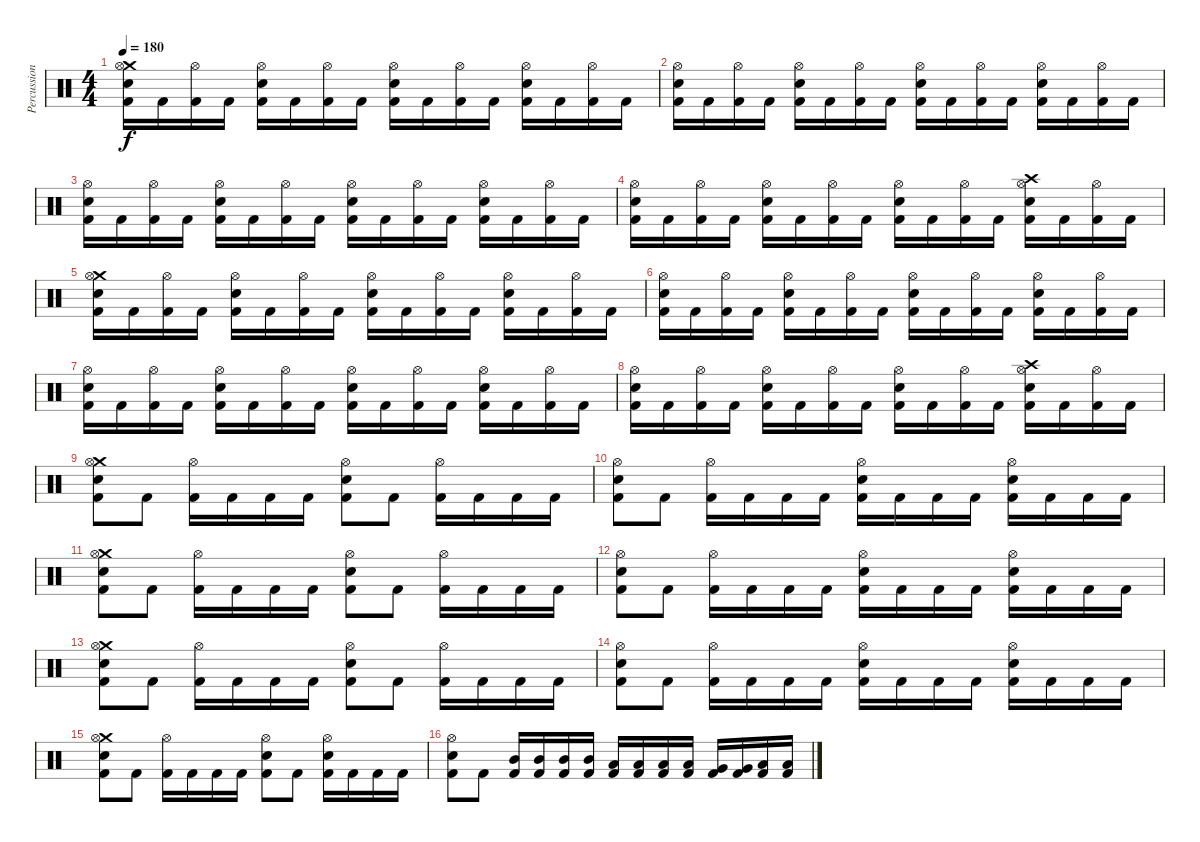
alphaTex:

\track ("Percussion" "Percussion") {instrument percussion}
\staff {score}
\articulation defaults
\ts (4 4)
\tempo 180
\clef neutral
\ks c
("Crash medium (hit)" "Hi-Hat (open)" "Snare (hit) 2" "Kick (hit) 2").16{dy f} "Kick (hit) 2".16 ("Hi-Hat (open)" "Kick (hit) 2").16 "Kick (hit) 2".16 ("Hi-Hat (open)" "Snare (hit) 2" "Kick (hit) 2").16 "Kick (hit) 2".16 ("Hi-Hat (open)" "Kick (hit) 2").16 "Kick (hit) 2".16 ("Hi-Hat (open)" "Snare (hit) 2" "Kick (hit) 2").16 "Kick (hit) 2".16 ("Hi-Hat (open)" "Kick (hit) 2").16 "Kick (hit) 2".16 ("Hi-Hat (open)" "Snare (hit) 2" "Kick (hit) 2").16 "Kick (hit) 2".16 ("Hi-Hat (open)" "Kick (hit) 2").16 "Kick (hit) 2".16 |
("Hi-Hat (open)" "Snare (hit) 2" "Kick (hit) 2").16 "Kick (hit) 2".16 ("Hi-Hat (open)" "Kick (hit) 2").16 "Kick (hit) 2".16 ("Hi-Hat (open)" "Snare (hit) 2" "Kick (hit) 2").16 "Kick (hit) 2".16 ("Hi-Hat (open)" "Kick (hit) 2").16 "Kick (hit) 2".16 ("Hi-Hat (open)" "Snare (hit) 2" "Kick (hit) 2").16 "Kick (hit) 2".16 ("Hi-Hat (open)" "Kick (hit) 2").16 "Kick (hit) 2".16 ("Hi-Hat (open)" "Snare (hit) 2" "Kick (hit) 2").16 "Kick (hit) 2".16 ("Hi-Hat (open)" "Kick (hit) 2").16 "Kick (hit) 2".16 |
("Hi-Hat (open)" "Snare (hit) 2" "Kick (hit) 2").16 "Kick (hit) 2".16 ("Hi-Hat (open)" "Kick (hit) 2").16 "Kick (hit) 2".16 ("Hi-Hat (open)" "Snare (hit) 2" "Kick (hit) 2").16 "Kick (hit) 2".16 ("Hi-Hat (open)" "Kick (hit) 2").16 "Kick (hit) 2".16 ("Hi-Hat (open)" "Snare (hit) 2" "Kick (hit) 2").16 "Kick (hit) 2".16 ("Hi-Hat (open)" "Kick (hit) 2").16 "Kick (hit) 2".16 ("Hi-Hat (open)" "Snare (hit) 2" "Kick (hit) 2").16 "Kick (hit) 2".16 ("Hi-Hat (open)" "Kick (hit) 2").16 "Kick (hit) 2".16 |
("Hi-Hat (open)" "Snare (hit) 2" "Kick (hit) 2").16 "Kick (hit) 2".16 ("Hi-Hat (open)" "Kick (hit) 2").16 "Kick (hit) 2".16 ("Hi-Hat (open)" "Snare (hit) 2" "Kick (hit) 2").16 "Kick (hit) 2".16 ("Hi-Hat (open)" "Kick (hit) 2").16 "Kick (hit) 2".16 ("Hi-Hat (open)" "Snare (hit) 2" "Kick (hit) 2").16 "Kick (hit) 2".16 ("Hi-Hat (open)" "Kick (hit) 2").16 "Kick (hit) 2".16 ("Crash high (hit)" "Hi-Hat (open)" "Snare (hit) 2" "Kick (hit) 2").16 "Kick (hit) 2".16 ("Hi-Hat (open)" "Kick (hit) 2").16 "Kick (hit) 2".16 |
("Crash medium (hit)" "Hi-Hat (open)" "Snare (hit) 2" "Kick (hit) 2").16 "Kick (hit) 2".16 ("Hi-Hat (open)" "Kick (hit) 2").16 "Kick (hit) 2".16 ("Hi-Hat (open)" "Snare (hit) 2" "Kick (hit) 2").16 "Kick (hit) 2".16 ("Hi-Hat (open)" "Kick (hit) 2").16 "Kick (hit) 2".16 ("Hi-Hat (open)" "Snare (hit) 2" "Kick (hit) 2").16 "Kick (hit) 2".16 ("Hi-Hat (open)" "Kick (hit) 2").16 "Kick (hit) 2".16 ("Hi-Hat (open)" "Snare (hit) 2" "Kick (hit) 2").16 "Kick (hit) 2".16 ("Hi-Hat (open)" "Kick (hit) 2").16 "Kick (hit) 2".16 |
("Hi-Hat (open)" "Snare (hit) 2" "Kick (hit) 2").16 "Kick (hit) 2".16 ("Hi-Hat (open)" "Kick (hit) 2").16 "Kick (hit) 2".16 ("Hi-Hat (open)" "Snare (hit) 2" "Kick (hit) 2").16 "Kick (hit) 2".16 ("Hi-Hat (open)" "Kick (hit) 2").16 "Kick (hit) 2".16 ("Hi-Hat (open)" "Snare (hit) 2" "Kick (hit) 2").16 "Kick (hit) 2".16 ("Hi-Hat (open)" "Kick (hit) 2").16 "Kick (hit) 2".16 ("Hi-Hat (open)" "Snare (hit) 2" "Kick (hit) 2").16 "Kick (hit) 2".16 ("Hi-Hat (open)" "Kick (hit) 2").16 "Kick (hit) 2".16 |
("Hi-Hat (open)" "Snare (hit) 2" "Kick (hit) 2").16 "Kick (hit) 2".16 ("Hi-Hat (open)" "Kick (hit) 2").16 "Kick (hit) 2".16 ("Hi-Hat (open)" "Snare (hit) 2" "Kick (hit) 2").16 "Kick (hit) 2".16 ("Hi-Hat (open)" "Kick (hit) 2").16 "Kick (hit) 2".16 ("Hi-Hat (open)" "Snare (hit) 2" "Kick (hit) 2").16 "Kick (hit) 2".16 ("Hi-Hat (open)" "Kick (hit) 2").16 "Kick (hit) 2".16 ("Hi-Hat (open)" "Snare (hit) 2" "Kick (hit) 2").16 "Kick (hit) 2".16 ("Hi-Hat (open)" "Kick (hit) 2").16 "Kick (hit) 2".16 |
("Hi-Hat (open)" "Snare (hit) 2" "Kick (hit) 2").16 "Kick (hit) 2".16 ("Hi-Hat (open)" "Kick (hit) 2").16 "Kick (hit) 2".16 ("Hi-Hat (open)" "Snare (hit) 2" "Kick (hit) 2").16 "Kick (hit) 2".16 ("Hi-Hat (open)" "Kick (hit) 2").16 "Kick (hit) 2".16 ("Hi-Hat (open)" "Snare (hit) 2" "Kick (hit) 2").16 "Kick (hit) 2".16 ("Hi-Hat (open)" "Kick (hit) 2").16 "Kick (hit) 2".16 ("Crash high (hit)" "Hi-Hat (open)" "Snare (hit) 2" "Kick (hit) 2").16 "Kick (hit) 2".16 ("Hi-Hat (open)" "Kick (hit) 2").16 "Kick (hit) 2".16 |
("Crash medium (hit)" "Hi-Hat (open)" "Snare (hit) 2" "Kick (hit) 2").8 "Kick (hit) 2".8 ("Hi-Hat (open)" "Kick (hit) 2").16 "Kick (hit) 2".16 "Kick (hit) 2".16 "Kick (hit) 2".16 ("Hi-Hat (open)" "Snare (hit) 2" "Kick (hit) 2").8 "Kick (hit) 2".8 ("Hi-Hat (open)" "Kick (hit) 2").16 "Kick (hit) 2".16 "Kick (hit) 2".16 "Kick (hit) 2".16 |
("Hi-Hat (open)" "Snare (hit) 2" "Kick (hit) 2").8 "Kick (hit) 2".8 ("Hi-Hat (open)" "Kick (hit) 2").16 "Kick (hit) 2".16 "Kick (hit) 2".16 "Kick (hit) 2".16 ("Hi-Hat (open)" "Snare (hit) 2" "Kick (hit) 2").16 "Kick (hit) 2".16 "Kick (hit) 2".16 "Kick (hit) 2".16 ("Hi-Hat (open)" "Snare (hit) 2" "Kick (hit) 2").16 "Kick (hit) 2".16 "Kick (hit) 2".16 "Kick (hit) 2".16 |
("Crash medium (hit)" "Hi-Hat (open)" "Snare (hit) 2" "Kick (hit) 2").8 "Kick (hit) 2".8 ("Hi-Hat (open)" "Kick (hit) 2").16 "Kick (hit) 2".16 "Kick (hit) 2".16 "Kick (hit) 2".16 ("Hi-Hat (open)" "Snare (hit) 2" "Kick (hit) 2").8 "Kick (hit) 2".8 ("Hi-Hat (open)" "Kick (hit) 2").16 "Kick (hit) 2".16 "Kick (hit) 2".16 "Kick (hit) 2".16 |
("Hi-Hat (open)" "Snare (hit) 2" "Kick (hit) 2").8 "Kick (hit) 2".8 ("Hi-Hat (open)" "Kick (hit) 2").16 "Kick (hit) 2".16 "Kick (hit) 2".16 "Kick (hit) 2".16 ("Hi-Hat (open)" "Snare (hit) 2" "Kick (hit) 2").16 "Kick (hit) 2".16 "Kick (hit) 2".16 "Kick (hit) 2".16 ("Hi-Hat (open)" "Snare (hit) 2" "Kick (hit) 2").16 "Kick (hit) 2".16 "Kick (hit) 2".16 "Kick (hit) 2".16 |
("Crash medium (hit)" "Hi-Hat (open)" "Snare (hit) 2" "Kick (hit) 2").8 "Kick (hit) 2".8 ("Hi-Hat (open)" "Kick (hit) 2").16 "Kick (hit) 2".16 "Kick (hit) 2".16 "Kick (hit) 2".16 ("Hi-Hat (open)" "Snare (hit) 2" "Kick (hit) 2").8 "Kick (hit) 2".8 ("Hi-Hat (open)" "Kick (hit) 2").16 "Kick (hit) 2".16 "Kick (hit) 2".16 "Kick (hit) 2".16 |
("Hi-Hat (open)" "Snare (hit) 2" "Kick (hit) 2").8 "Kick (hit) 2".8 ("Hi-Hat (open)" "Kick (hit) 2").16 "Kick (hit) 2".16 "Kick (hit) 2".16 "Kick (hit) 2".16 ("Hi-Hat (open)" "Snare (hit) 2" "Kick (hit) 2").16 "Kick (hit) 2".16 "Kick (hit) 2".16 "Kick (hit) 2".16 ("Hi-Hat (open)" "Snare (hit) 2" "Kick (hit) 2").16 "Kick (hit) 2".16 "Kick (hit) 2".16 "Kick (hit) 2".16 |
("Crash medium (hit)" "Hi-Hat (open)" "Snare (hit) 2" "Kick (hit) 2").8 "Kick (hit) 2".8 ("Hi-Hat (open)" "Kick (hit) 2").16 "Kick (hit) 2".16 "Kick (hit) 2".16 "Kick (hit) 2".16 ("Hi-Hat (open)" "Snare (hit) 2" "Kick (hit) 2").8 "Kick (hit) 2".8 ("Hi-Hat (open)" "Snare (hit) 2" "Kick (hit) 2").16 "Kick (hit) 2".16 "Kick (hit) 2".16 "Kick (hit) 2".16 |
("Hi-Hat (open)" "Snare (hit) 2" "Kick (hit) 2").8 "Kick (hit) 2".8 ("Mid Tom (hit)" "Kick (hit) 2").16 ("Mid Tom (hit)" "Kick (hit) 2").16 ("Mid Tom (hit)" "Kick (hit) 2").16 ("Mid Tom (hit)" "Kick (hit) 2").16 ("Low Tom (hit)" "Kick (hit) 2").16 ("Low Tom (hit)" "Kick (hit) 2").16 ("Low Tom (hit)" "Kick (hit) 2").16 ("Low Tom (hit)" "Kick (hit) 2").16 ("Very Low Tom (hit)" "Kick (hit) 2").16 ("Very Low Tom (hit)" "Kick (hit) 2").16 ("Low Floor Tom (hit)" "Kick (hit) 2").16 ("Low Floor Tom (hit)" "Kick (hit) 2").16
